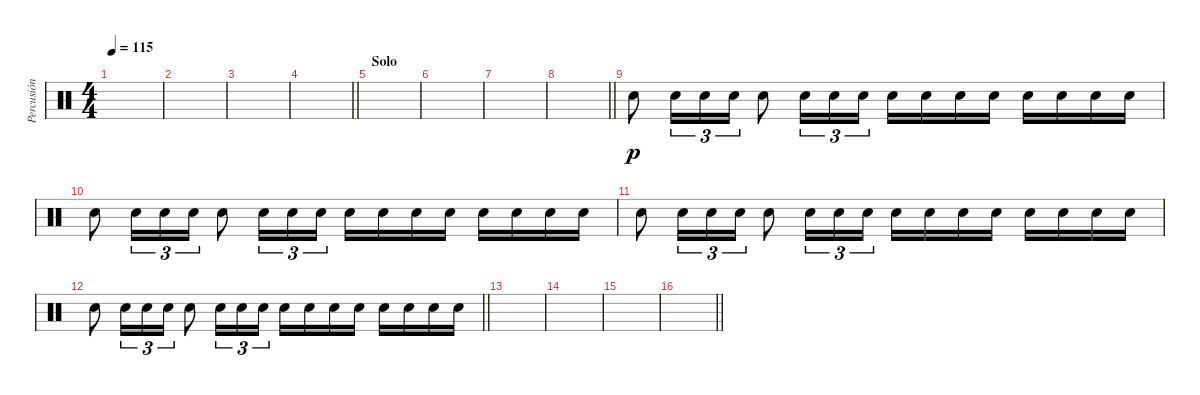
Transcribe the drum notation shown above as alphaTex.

\track ("Percusión" "Percusión") {instrument percussion}
\staff {score}
\articulation defaults
\ts (4 4)
\tempo 115
\clef neutral
\ks c
|
|
|
\barLineRight lightlight
|
\section ("" "Solo")
|
|
|
\barLineRight lightlight
|
\section ("" "")
"Snare (hit) 2".8{dy p} "Snare (hit) 2".16{tu (3 2)} "Snare (hit) 2".16{tu (3 2)} "Snare (hit) 2".16{tu (3 2)} "Snare (hit) 2".8 "Snare (hit) 2".16{tu (3 2)} "Snare (hit) 2".16{tu (3 2)} "Snare (hit) 2".16{tu (3 2)} "Snare (hit) 2".16 "Snare (hit) 2".16 "Snare (hit) 2".16 "Snare (hit) 2".16 "Snare (hit) 2".16 "Snare (hit) 2".16 "Snare (hit) 2".16 "Snare (hit) 2".16 |
"Snare (hit) 2".8 "Snare (hit) 2".16{tu (3 2)} "Snare (hit) 2".16{tu (3 2)} "Snare (hit) 2".16{tu (3 2)} "Snare (hit) 2".8 "Snare (hit) 2".16{tu (3 2)} "Snare (hit) 2".16{tu (3 2)} "Snare (hit) 2".16{tu (3 2)} "Snare (hit) 2".16 "Snare (hit) 2".16 "Snare (hit) 2".16 "Snare (hit) 2".16 "Snare (hit) 2".16 "Snare (hit) 2".16 "Snare (hit) 2".16 "Snare (hit) 2".16 |
"Snare (hit) 2".8 "Snare (hit) 2".16{tu (3 2)} "Snare (hit) 2".16{tu (3 2)} "Snare (hit) 2".16{tu (3 2)} "Snare (hit) 2".8 "Snare (hit) 2".16{tu (3 2)} "Snare (hit) 2".16{tu (3 2)} "Snare (hit) 2".16{tu (3 2)} "Snare (hit) 2".16 "Snare (hit) 2".16 "Snare (hit) 2".16 "Snare (hit) 2".16 "Snare (hit) 2".16 "Snare (hit) 2".16 "Snare (hit) 2".16 "Snare (hit) 2".16 |
\barLineRight lightlight "Snare (hit) 2".8 "Snare (hit) 2".16{tu (3 2)} "Snare (hit) 2".16{tu (3 2)} "Snare (hit) 2".16{tu (3 2)} "Snare (hit) 2".8 "Snare (hit) 2".16{tu (3 2)} "Snare (hit) 2".16{tu (3 2)} "Snare (hit) 2".16{tu (3 2)} "Snare (hit) 2".16 "Snare (hit) 2".16 "Snare (hit) 2".16 "Snare (hit) 2".16 "Snare (hit) 2".16 "Snare (hit) 2".16 "Snare (hit) 2".16 "Snare (hit) 2".16
|
\section ("" "")
|
|
|
\barLineRight lightlight
